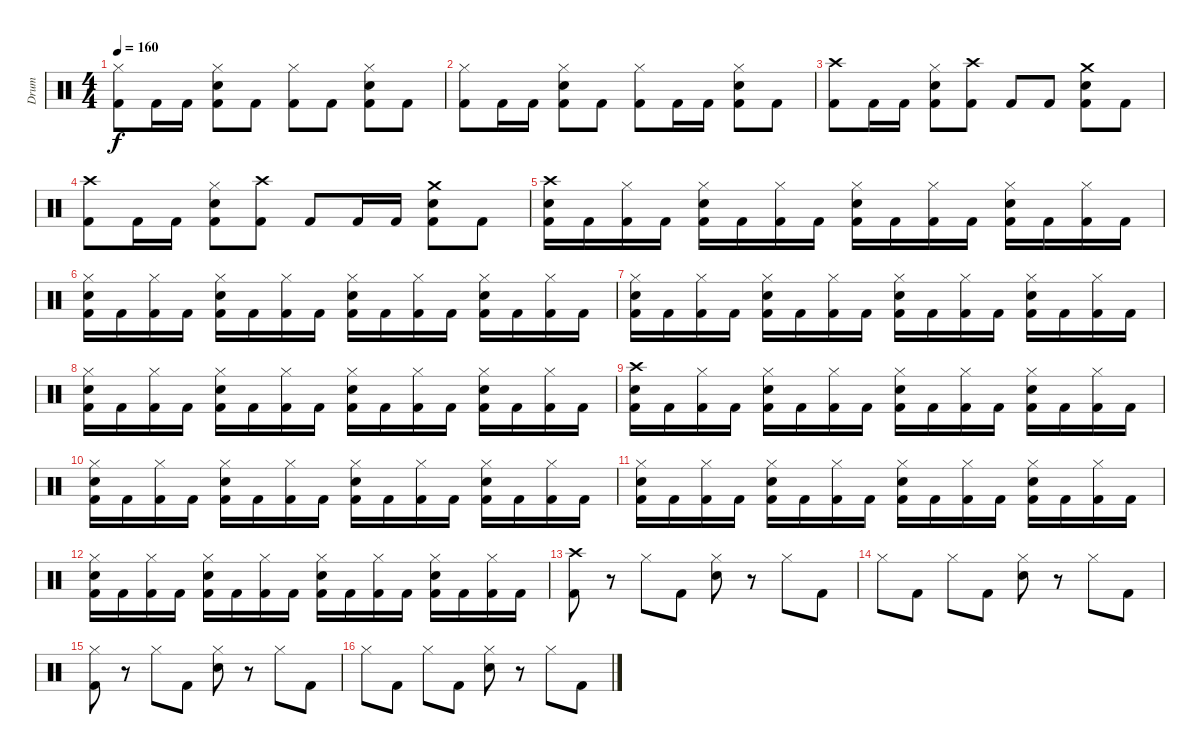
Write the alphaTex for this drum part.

\track ("Drum" "Drum") {instrument percussion}
\staff {score}
\articulation defaults
\ts (4 4)
\tempo 160
\clef neutral
\ks c
("Hi-Hat (closed)" "Kick (hit) 2").8{dy f} "Kick (hit) 2".16 "Kick (hit) 2".16 ("Hi-Hat (closed)" "Electric Snare (hit)" "Kick (hit) 2").8 "Kick (hit) 2".8 ("Hi-Hat (closed)" "Kick (hit) 2").8 "Kick (hit) 2".8 ("Hi-Hat (closed)" "Electric Snare (hit)" "Kick (hit) 2").8 "Kick (hit) 2".8 |
("Hi-Hat (closed)" "Kick (hit) 2").8 "Kick (hit) 2".16 "Kick (hit) 2".16 ("Hi-Hat (closed)" "Electric Snare (hit)" "Kick (hit) 2").8 "Kick (hit) 2".8 ("Hi-Hat (closed)" "Kick (hit) 2").8 "Kick (hit) 2".16 "Kick (hit) 2".16 ("Hi-Hat (closed)" "Electric Snare (hit)" "Kick (hit) 2").8 "Kick (hit) 2".8 |
("Crash high (hit)" "Kick (hit) 2").8 "Kick (hit) 2".16 "Kick (hit) 2".16 ("Hi-Hat (closed)" "Electric Snare (hit)" "Kick (hit) 2").8 ("Crash high (hit)" "Kick (hit) 2").8 "Kick (hit) 2".8 "Kick (hit) 2".8 ("Crash medium (hit)" "Electric Snare (hit)" "Kick (hit) 2").8 "Kick (hit) 2".8 |
("Crash high (hit)" "Kick (hit) 2").8 "Kick (hit) 2".16 "Kick (hit) 2".16 ("Hi-Hat (closed)" "Electric Snare (hit)" "Kick (hit) 2").8 ("Crash high (hit)" "Kick (hit) 2").8 "Kick (hit) 2".8 "Kick (hit) 2".16 "Kick (hit) 2".16 ("Crash medium (hit)" "Electric Snare (hit)" "Kick (hit) 2").8 "Kick (hit) 2".8 |
("Crash high (hit)" "Electric Snare (hit)" "Kick (hit) 2").16 "Kick (hit) 2".16 ("Hi-Hat (closed)" "Kick (hit) 2").16 "Kick (hit) 2".16 ("Hi-Hat (closed)" "Electric Snare (hit)" "Kick (hit) 2").16 "Kick (hit) 2".16 ("Hi-Hat (closed)" "Kick (hit) 2").16 "Kick (hit) 2".16 ("Hi-Hat (closed)" "Electric Snare (hit)" "Kick (hit) 2").16 "Kick (hit) 2".16 ("Hi-Hat (closed)" "Kick (hit) 2").16 "Kick (hit) 2".16 ("Hi-Hat (closed)" "Electric Snare (hit)" "Kick (hit) 2").16 "Kick (hit) 2".16 ("Hi-Hat (closed)" "Kick (hit) 2").16 "Kick (hit) 2".16 |
("Hi-Hat (closed)" "Electric Snare (hit)" "Kick (hit) 2").16 "Kick (hit) 2".16 ("Hi-Hat (closed)" "Kick (hit) 2").16 "Kick (hit) 2".16 ("Hi-Hat (closed)" "Electric Snare (hit)" "Kick (hit) 2").16 "Kick (hit) 2".16 ("Hi-Hat (closed)" "Kick (hit) 2").16 "Kick (hit) 2".16 ("Hi-Hat (closed)" "Electric Snare (hit)" "Kick (hit) 2").16 "Kick (hit) 2".16 ("Hi-Hat (closed)" "Kick (hit) 2").16 "Kick (hit) 2".16 ("Hi-Hat (closed)" "Electric Snare (hit)" "Kick (hit) 2").16 "Kick (hit) 2".16 ("Hi-Hat (closed)" "Kick (hit) 2").16 "Kick (hit) 2".16 |
("Hi-Hat (closed)" "Electric Snare (hit)" "Kick (hit) 2").16 "Kick (hit) 2".16 ("Hi-Hat (closed)" "Kick (hit) 2").16 "Kick (hit) 2".16 ("Hi-Hat (closed)" "Electric Snare (hit)" "Kick (hit) 2").16 "Kick (hit) 2".16 ("Hi-Hat (closed)" "Kick (hit) 2").16 "Kick (hit) 2".16 ("Hi-Hat (closed)" "Electric Snare (hit)" "Kick (hit) 2").16 "Kick (hit) 2".16 ("Hi-Hat (closed)" "Kick (hit) 2").16 "Kick (hit) 2".16 ("Hi-Hat (closed)" "Electric Snare (hit)" "Kick (hit) 2").16 "Kick (hit) 2".16 ("Hi-Hat (closed)" "Kick (hit) 2").16 "Kick (hit) 2".16 |
("Hi-Hat (closed)" "Electric Snare (hit)" "Kick (hit) 2").16 "Kick (hit) 2".16 ("Hi-Hat (closed)" "Kick (hit) 2").16 "Kick (hit) 2".16 ("Hi-Hat (closed)" "Electric Snare (hit)" "Kick (hit) 2").16 "Kick (hit) 2".16 ("Hi-Hat (closed)" "Kick (hit) 2").16 "Kick (hit) 2".16 ("Hi-Hat (closed)" "Electric Snare (hit)" "Kick (hit) 2").16 "Kick (hit) 2".16 ("Hi-Hat (closed)" "Kick (hit) 2").16 "Kick (hit) 2".16 ("Hi-Hat (closed)" "Electric Snare (hit)" "Kick (hit) 2").16 "Kick (hit) 2".16 ("Hi-Hat (closed)" "Kick (hit) 2").16 "Kick (hit) 2".16 |
("Crash high (hit)" "Electric Snare (hit)" "Kick (hit) 2").16 "Kick (hit) 2".16 ("Hi-Hat (closed)" "Kick (hit) 2").16 "Kick (hit) 2".16 ("Hi-Hat (closed)" "Electric Snare (hit)" "Kick (hit) 2").16 "Kick (hit) 2".16 ("Hi-Hat (closed)" "Kick (hit) 2").16 "Kick (hit) 2".16 ("Hi-Hat (closed)" "Electric Snare (hit)" "Kick (hit) 2").16 "Kick (hit) 2".16 ("Hi-Hat (closed)" "Kick (hit) 2").16 "Kick (hit) 2".16 ("Hi-Hat (closed)" "Electric Snare (hit)" "Kick (hit) 2").16 "Kick (hit) 2".16 ("Hi-Hat (closed)" "Kick (hit) 2").16 "Kick (hit) 2".16 |
("Hi-Hat (closed)" "Electric Snare (hit)" "Kick (hit) 2").16 "Kick (hit) 2".16 ("Hi-Hat (closed)" "Kick (hit) 2").16 "Kick (hit) 2".16 ("Hi-Hat (closed)" "Electric Snare (hit)" "Kick (hit) 2").16 "Kick (hit) 2".16 ("Hi-Hat (closed)" "Kick (hit) 2").16 "Kick (hit) 2".16 ("Hi-Hat (closed)" "Electric Snare (hit)" "Kick (hit) 2").16 "Kick (hit) 2".16 ("Hi-Hat (closed)" "Kick (hit) 2").16 "Kick (hit) 2".16 ("Hi-Hat (closed)" "Electric Snare (hit)" "Kick (hit) 2").16 "Kick (hit) 2".16 ("Hi-Hat (closed)" "Kick (hit) 2").16 "Kick (hit) 2".16 |
("Hi-Hat (closed)" "Electric Snare (hit)" "Kick (hit) 2").16 "Kick (hit) 2".16 ("Hi-Hat (closed)" "Kick (hit) 2").16 "Kick (hit) 2".16 ("Hi-Hat (closed)" "Electric Snare (hit)" "Kick (hit) 2").16 "Kick (hit) 2".16 ("Hi-Hat (closed)" "Kick (hit) 2").16 "Kick (hit) 2".16 ("Hi-Hat (closed)" "Electric Snare (hit)" "Kick (hit) 2").16 "Kick (hit) 2".16 ("Hi-Hat (closed)" "Kick (hit) 2").16 "Kick (hit) 2".16 ("Hi-Hat (closed)" "Electric Snare (hit)" "Kick (hit) 2").16 "Kick (hit) 2".16 ("Hi-Hat (closed)" "Kick (hit) 2").16 "Kick (hit) 2".16 |
("Hi-Hat (closed)" "Electric Snare (hit)" "Kick (hit) 2").16 "Kick (hit) 2".16 ("Hi-Hat (closed)" "Kick (hit) 2").16 "Kick (hit) 2".16 ("Hi-Hat (closed)" "Electric Snare (hit)" "Kick (hit) 2").16 "Kick (hit) 2".16 ("Hi-Hat (closed)" "Kick (hit) 2").16 "Kick (hit) 2".16 ("Hi-Hat (closed)" "Electric Snare (hit)" "Kick (hit) 2").16 "Kick (hit) 2".16 ("Hi-Hat (closed)" "Kick (hit) 2").16 "Kick (hit) 2".16 ("Hi-Hat (closed)" "Electric Snare (hit)" "Kick (hit) 2").16 "Kick (hit) 2".16 ("Hi-Hat (closed)" "Kick (hit) 2").16 "Kick (hit) 2".16 |
("Crash high (hit)" "Kick (hit) 2").8 r.8 "Hi-Hat (closed)".8 "Kick (hit) 2".8 ("Hi-Hat (closed)" "Electric Snare (hit)").8 r.8 "Hi-Hat (closed)".8 "Kick (hit) 2".8 |
"Hi-Hat (closed)".8 "Kick (hit) 2".8 "Hi-Hat (closed)".8 "Kick (hit) 2".8 ("Hi-Hat (closed)" "Electric Snare (hit)").8 r.8 "Hi-Hat (closed)".8 "Kick (hit) 2".8 |
("Hi-Hat (closed)" "Kick (hit) 2").8 r.8 "Hi-Hat (closed)".8 "Kick (hit) 2".8 ("Hi-Hat (closed)" "Electric Snare (hit)").8 r.8 "Hi-Hat (closed)".8 "Kick (hit) 2".8 |
"Hi-Hat (closed)".8 "Kick (hit) 2".8 "Hi-Hat (closed)".8 "Kick (hit) 2".8 ("Hi-Hat (closed)" "Electric Snare (hit)").8 r.8 "Hi-Hat (closed)".8 "Kick (hit) 2".8
